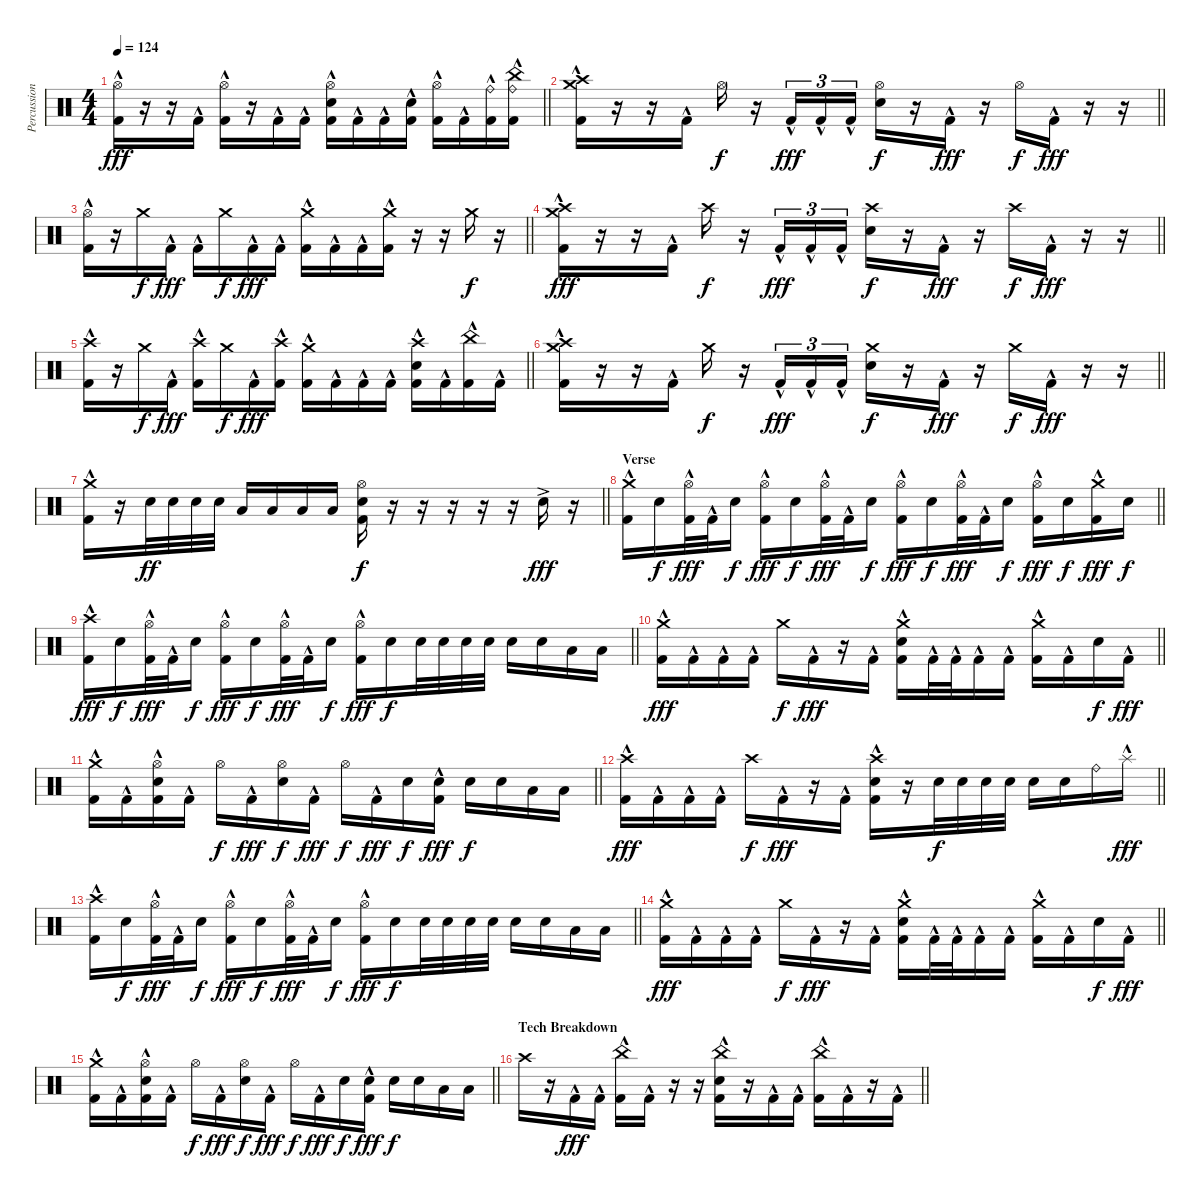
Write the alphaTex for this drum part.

\track ("Percussion" "Percussion") {instrument percussion}
\staff {score}
\articulation defaults
\ts (4 4)
\tempo 124
\clef neutral
\barLineRight lightlight
\ks c
("Hi-Hat (open)" "Kick (hit) 2"{hac}).16{dy fff} r.16 r.16 "Kick (hit) 2"{hac}.16 ("Hi-Hat (open)" "Kick (hit) 2"{hac}).16 r.16 "Kick (hit) 2"{hac}.16 "Kick (hit) 2"{hac}.16 ("Electric Snare (hit)" "Hi-Hat (open)" "Kick (hit) 2"{hac}).16 "Kick (hit) 2"{hac}.16 "Kick (hit) 2"{hac}.16 ("Electric Snare (hit)" "Kick (hit) 2"{hac}).16 ("Hi-Hat (open)" "Kick (hit) 2"{hac}).16 "Kick (hit) 2"{hac}.16 ("Ride (bell)" "Kick (hit) 2"{hac}).16 ("Ride (bell)" "China (hit)" "Kick (hit) 2"{hac}).16 |
\barLineRight lightlight
("Crash high (hit)" "Crash medium (hit)" "Kick (hit) 2"{hac}).16 r.16 r.16 "Kick (hit) 2"{hac}.16 "Hi-Hat (open)".16{dy f} r.16 "Kick (hit) 2"{hac}.16{tu (3 2) dy fff} "Kick (hit) 2"{hac}.16{tu (3 2)} "Kick (hit) 2"{hac}.16{tu (3 2)} ("Electric Snare (hit)" "Hi-Hat (open)").16{dy f} r.16 "Kick (hit) 2"{hac}.16{dy fff} r.16 "Hi-Hat (open)".16{dy f} "Kick (hit) 2"{hac}.16{dy fff} r.16 r.16 |
\barLineRight lightlight
("Hi-Hat (open)" "Kick (hit) 2"{hac}).16 r.16 "Crash medium (hit)".16{dy f} "Kick (hit) 2"{hac}.16{dy fff} "Kick (hit) 2"{hac}.16 "Crash medium (hit)".16{dy f} "Kick (hit) 2"{hac}.16{dy fff} "Kick (hit) 2"{hac}.16 ("Crash medium (hit)" "Kick (hit) 2"{hac}).16 "Kick (hit) 2"{hac}.16 "Kick (hit) 2"{hac}.16 ("Crash medium (hit)" "Kick (hit) 2"{hac}).16 r.16 r.16 "Crash medium (hit)".16{dy f} r.16 |
\barLineRight lightlight
("Crash high (hit)" "Crash medium (hit)" "Kick (hit) 2"{hac}).16{dy fff} r.16 r.16 "Kick (hit) 2"{hac}.16 "Crash high (hit)".16{dy f} r.16 "Kick (hit) 2"{hac}.16{tu (3 2) dy fff} "Kick (hit) 2"{hac}.16{tu (3 2)} "Kick (hit) 2"{hac}.16{tu (3 2)} ("Electric Snare (hit)" "Crash high (hit)").16{dy f} r.16 "Kick (hit) 2"{hac}.16{dy fff} r.16 "Crash high (hit)".16{dy f} "Kick (hit) 2"{hac}.16{dy fff} r.16 r.16 |
\barLineRight lightlight
("Crash high (hit)" "Kick (hit) 2"{hac}).16 r.16 "Crash medium (hit)".16{dy f} "Kick (hit) 2"{hac}.16{dy fff} ("Crash high (hit)" "Kick (hit) 2"{hac}).16 "Crash medium (hit)".16{dy f} "Kick (hit) 2"{hac}.16{dy fff} ("Crash high (hit)" "Kick (hit) 2"{hac}).16 ("Crash medium (hit)" "Kick (hit) 2"{hac}).16 "Kick (hit) 2"{hac}.16 "Kick (hit) 2"{hac}.16 "Kick (hit) 2"{hac}.16 ("Electric Snare (hit)" "Crash high (hit)" "Kick (hit) 2"{hac}).16 "Kick (hit) 2"{hac}.16 ("China (hit)" "Kick (hit) 2"{hac}).16 "Kick (hit) 2"{hac}.16 |
\barLineRight lightlight
("Crash high (hit)" "Crash medium (hit)" "Kick (hit) 2"{hac}).16 r.16 r.16 "Kick (hit) 2"{hac}.16 "Crash medium (hit)".16{dy f} r.16 "Kick (hit) 2"{hac}.16{tu (3 2) dy fff} "Kick (hit) 2"{hac}.16{tu (3 2)} "Kick (hit) 2"{hac}.16{tu (3 2)} ("Electric Snare (hit)" "Crash medium (hit)").16{dy f} r.16 "Kick (hit) 2"{hac}.16{dy fff} r.16 "Crash medium (hit)".16{dy f} "Kick (hit) 2"{hac}.16{dy fff} r.16 r.16 |
\barLineRight lightlight
("Crash medium (hit)" "Kick (hit) 2"{hac}).16 r.16 "Electric Snare (hit)".32{dy ff} "Electric Snare (hit)".32 "Electric Snare (hit)".32 "Electric Snare (hit)".32 "Low Tom (hit)".16 "Low Tom (hit)".16 "Low Floor Tom (hit)".16 "Low Floor Tom (hit)".16 ("Electric Snare (hit)" "Hi-Hat (open)" "Kick (hit) 2").16{dy f} r.16 r.16 r.16 r.16 r.16 "Electric Snare (hit)"{ac}.16{dy fff} r.16 |
\section ("" "Verse")
\barLineRight lightlight
("Crash medium (hit)" "Kick (hit) 2"{hac}).16 "Electric Snare (hit)".16{dy f} ("Hi-Hat (open)" "Kick (hit) 2"{hac}).32{dy fff} "Kick (hit) 2"{hac}.32 "Electric Snare (hit)".16{dy f} ("Hi-Hat (open)" "Kick (hit) 2"{hac}).16{dy fff} "Electric Snare (hit)".16{dy f} ("Hi-Hat (open)" "Kick (hit) 2"{hac}).32{dy fff} "Kick (hit) 2"{hac}.32 "Electric Snare (hit)".16{dy f} ("Hi-Hat (open)" "Kick (hit) 2"{hac}).16{dy fff} "Electric Snare (hit)".16{dy f} ("Hi-Hat (open)" "Kick (hit) 2"{hac}).32{dy fff} "Kick (hit) 2"{hac}.32 "Electric Snare (hit)".16{dy f} ("Hi-Hat (open)" "Kick (hit) 2"{hac}).16{dy fff} "Electric Snare (hit)".16{dy f} ("Crash medium (hit)" "Kick (hit) 2"{hac}).16{dy fff} "Electric Snare (hit)".16{dy f} |
\barLineRight lightlight
("Crash high (hit)" "Kick (hit) 2"{hac}).16{dy fff} "Electric Snare (hit)".16{dy f} ("Hi-Hat (open)" "Kick (hit) 2"{hac}).32{dy fff} "Kick (hit) 2"{hac}.32 "Electric Snare (hit)".16{dy f} ("Hi-Hat (open)" "Kick (hit) 2"{hac}).16{dy fff} "Electric Snare (hit)".16{dy f} ("Hi-Hat (open)" "Kick (hit) 2"{hac}).32{dy fff} "Kick (hit) 2"{hac}.32 "Electric Snare (hit)".16{dy f} ("Hi-Hat (open)" "Kick (hit) 2"{hac}).16{dy fff} "Electric Snare (hit)".16{dy f} "Electric Snare (hit)".32 "Electric Snare (hit)".32 "Electric Snare (hit)".32 "Electric Snare (hit)".32 "Electric Snare (hit)".16 "Electric Snare (hit)".16 "Low Tom (hit)".16 "Low Tom (hit)".16 |
\barLineRight lightlight
("Crash medium (hit)" "Kick (hit) 2"{hac}).16{dy fff} "Kick (hit) 2"{hac}.16 "Kick (hit) 2"{hac}.16 "Kick (hit) 2"{hac}.16 "Crash medium (hit)".16{dy f} "Kick (hit) 2"{hac}.16{dy fff} r.16 "Kick (hit) 2"{hac}.16 ("Electric Snare (hit)" "Crash medium (hit)" "Kick (hit) 2"{hac}).16 "Kick (hit) 2"{hac}.32 "Kick (hit) 2"{hac}.32 "Kick (hit) 2"{hac}.16 "Kick (hit) 2"{hac}.16 ("Crash medium (hit)" "Kick (hit) 2"{hac}).16 "Kick (hit) 2"{hac}.16 "Electric Snare (hit)".16{dy f} "Kick (hit) 2"{hac}.16{dy fff} |
\barLineRight lightlight
("Crash medium (hit)" "Kick (hit) 2"{hac}).16 "Kick (hit) 2"{hac}.16 ("Hi-Hat (open)" "Electric Snare (hit)" "Kick (hit) 2"{hac}).16 "Kick (hit) 2"{hac}.16 "Hi-Hat (open)".16{dy f} "Kick (hit) 2"{hac}.16{dy fff} ("Hi-Hat (open)" "Electric Snare (hit)").16{dy f} "Kick (hit) 2"{hac}.16{dy fff} "Hi-Hat (open)".16{dy f} "Kick (hit) 2"{hac}.16{dy fff} "Electric Snare (hit)".16{dy f} ("Electric Snare (hit)" "Kick (hit) 2"{hac}).16{dy fff} "Electric Snare (hit)".16{dy f} "Electric Snare (hit)".16 "Low Tom (hit)".16 "Low Tom (hit)".16 |
\barLineRight lightlight
("Crash high (hit)" "Kick (hit) 2"{hac}).16{dy fff} "Kick (hit) 2"{hac}.16 "Kick (hit) 2"{hac}.16 "Kick (hit) 2"{hac}.16 "Crash high (hit)".16{dy f} "Kick (hit) 2"{hac}.16{dy fff} r.16 "Kick (hit) 2"{hac}.16 ("Crash high (hit)" "Electric Snare (hit)" "Kick (hit) 2"{hac}).16 r.16 "Electric Snare (hit)".32{dy f} "Electric Snare (hit)".32 "Electric Snare (hit)".32 "Electric Snare (hit)".32 "Electric Snare (hit)".16 "Electric Snare (hit)".16 "Ride (bell)".16 "Splash (hit)"{hac}.16{dy fff} |
\barLineRight lightlight
("Crash high (hit)" "Kick (hit) 2"{hac}).16 "Electric Snare (hit)".16{dy f} ("Hi-Hat (open)" "Kick (hit) 2"{hac}).32{dy fff} "Kick (hit) 2"{hac}.32 "Electric Snare (hit)".16{dy f} ("Hi-Hat (open)" "Kick (hit) 2"{hac}).16{dy fff} "Electric Snare (hit)".16{dy f} ("Hi-Hat (open)" "Kick (hit) 2"{hac}).32{dy fff} "Kick (hit) 2"{hac}.32 "Electric Snare (hit)".16{dy f} ("Hi-Hat (open)" "Kick (hit) 2"{hac}).16{dy fff} "Electric Snare (hit)".16{dy f} "Electric Snare (hit)".32 "Electric Snare (hit)".32 "Electric Snare (hit)".32 "Electric Snare (hit)".32 "Electric Snare (hit)".16 "Electric Snare (hit)".16 "Low Tom (hit)".16 "Low Tom (hit)".16 |
\barLineRight lightlight
("Crash medium (hit)" "Kick (hit) 2"{hac}).16{dy fff} "Kick (hit) 2"{hac}.16 "Kick (hit) 2"{hac}.16 "Kick (hit) 2"{hac}.16 "Crash medium (hit)".16{dy f} "Kick (hit) 2"{hac}.16{dy fff} r.16 "Kick (hit) 2"{hac}.16 ("Electric Snare (hit)" "Crash medium (hit)" "Kick (hit) 2"{hac}).16 "Kick (hit) 2"{hac}.32 "Kick (hit) 2"{hac}.32 "Kick (hit) 2"{hac}.16 "Kick (hit) 2"{hac}.16 ("Crash medium (hit)" "Kick (hit) 2"{hac}).16 "Kick (hit) 2"{hac}.16 "Electric Snare (hit)".16{dy f} "Kick (hit) 2"{hac}.16{dy fff} |
\barLineRight lightlight
("Crash medium (hit)" "Kick (hit) 2"{hac}).16 "Kick (hit) 2"{hac}.16 ("Hi-Hat (open)" "Electric Snare (hit)" "Kick (hit) 2"{hac}).16 "Kick (hit) 2"{hac}.16 "Hi-Hat (open)".16{dy f} "Kick (hit) 2"{hac}.16{dy fff} ("Hi-Hat (open)" "Electric Snare (hit)").16{dy f} "Kick (hit) 2"{hac}.16{dy fff} "Hi-Hat (open)".16{dy f} "Kick (hit) 2"{hac}.16{dy fff} "Electric Snare (hit)".16{dy f} ("Electric Snare (hit)" "Kick (hit) 2"{hac}).16{dy fff} "Electric Snare (hit)".16{dy f} "Electric Snare (hit)".16 "Low Tom (hit)".16 "Low Tom (hit)".16 |
\section ("" "Tech Breakdown")
\barLineRight lightlight "Crash high (hit)".16
r.16 "Kick (hit) 2"{hac}.16{dy fff} "Kick (hit) 2"{hac}.16 ("China (hit)" "Kick (hit) 2"{hac}).16 "Kick (hit) 2"{hac}.16 r.16 r.16 ("Electric Snare (hit)" "China (hit)" "Kick (hit) 2"{hac}).16 r.16 "Kick (hit) 2"{hac}.16 "Kick (hit) 2"{hac}.16 ("China (hit)" "Kick (hit) 2"{hac}).16 "Kick (hit) 2"{hac}.16 r.16 "Kick (hit) 2"{hac}.16
